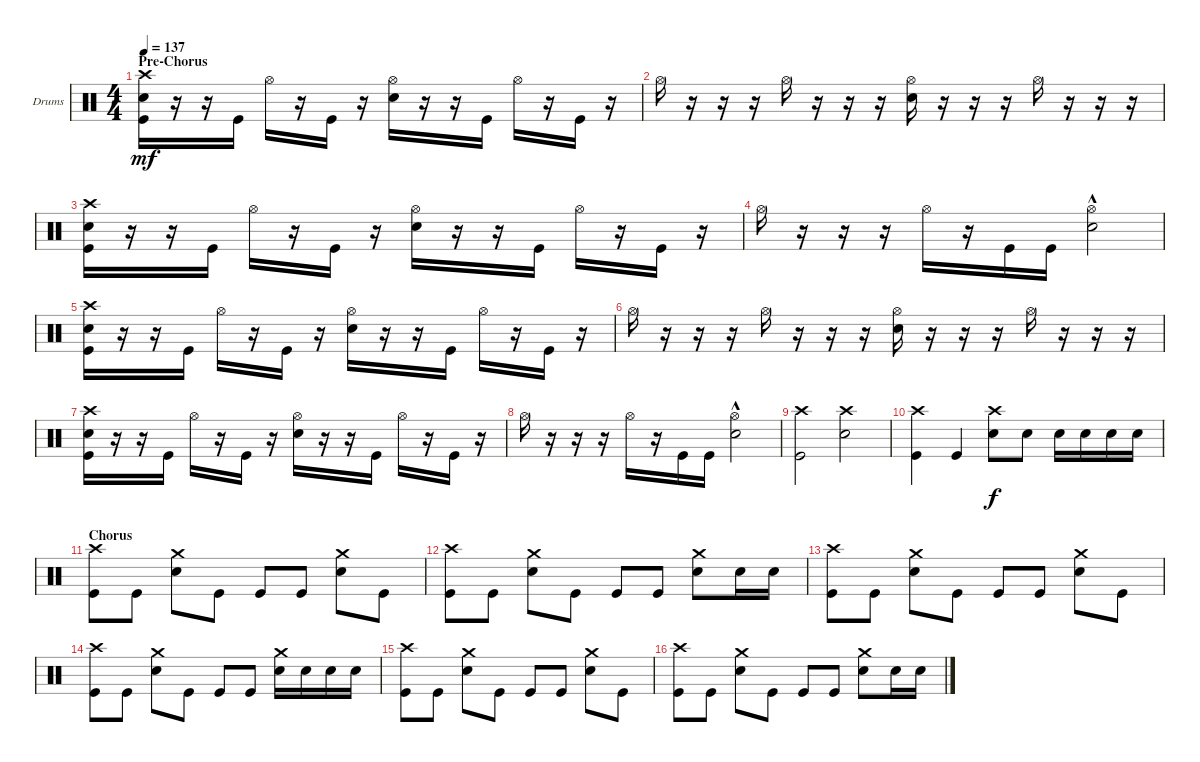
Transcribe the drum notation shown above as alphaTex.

\defaultSystemsLayout 4
\bracketExtendMode groupsimilarinstruments
\firstSystemTrackNameOrientation horizontal
\otherSystemsTrackNameOrientation horizontal
\track ("Drumkit - Paul" "Drums") {instrument percussion}
\staff {score}
\articulation defaults
\ts (4 4)
\section ("" "Pre-Chorus")
\tempo 137
\clef neutral
\ks c
("Snare (hit) 2" "Kick (hit)" "Crash high (hit)").16{dy mf} r.16 r.16 "Kick (hit)".16 "Hi-Hat (open)".16 r.16 "Kick (hit)".16 r.16 ("Hi-Hat (open)" "Snare (hit) 2").16 r.16 r.16 "Kick (hit)".16 "Hi-Hat (open)".16 r.16 "Kick (hit)".16 r.16 |
"Hi-Hat (open)".16 r.16 r.16 r.16 "Hi-Hat (open)".16 r.16 r.16 r.16 ("Hi-Hat (open)" "Snare (hit) 2").16 r.16 r.16 r.16 "Hi-Hat (open)".16 r.16 r.16 r.16 |
("Snare (hit) 2" "Crash high (hit)" "Kick (hit)").16 r.16 r.16 "Kick (hit)".16 "Hi-Hat (open)".16 r.16 "Kick (hit)".16 r.16 ("Hi-Hat (open)" "Snare (hit) 2").16 r.16 r.16 "Kick (hit)".16 "Hi-Hat (open)".16 r.16 "Kick (hit)".16 r.16 |
"Hi-Hat (open)".16 r.16 r.16 r.16 "Hi-Hat (open)".16 r.16 "Kick (hit)".16 "Kick (hit)".16 ("Snare (hit) 2" "Hi-Hat (open)"{hac}).2 |
("Snare (hit) 2" "Kick (hit)" "Crash high (hit)").16 r.16 r.16 "Kick (hit)".16 "Hi-Hat (open)".16 r.16 "Kick (hit)".16 r.16 ("Hi-Hat (open)" "Snare (hit) 2").16 r.16 r.16 "Kick (hit)".16 "Hi-Hat (open)".16 r.16 "Kick (hit)".16 r.16 |
"Hi-Hat (open)".16 r.16 r.16 r.16 "Hi-Hat (open)".16 r.16 r.16 r.16 ("Hi-Hat (open)" "Snare (hit) 2").16 r.16 r.16 r.16 "Hi-Hat (open)".16 r.16 r.16 r.16 |
("Snare (hit) 2" "Crash high (hit)" "Kick (hit)").16 r.16 r.16 "Kick (hit)".16 "Hi-Hat (open)".16 r.16 "Kick (hit)".16 r.16 ("Hi-Hat (open)" "Snare (hit) 2").16 r.16 r.16 "Kick (hit)".16 "Hi-Hat (open)".16 r.16 "Kick (hit)".16 r.16 |
"Hi-Hat (open)".16 r.16 r.16 r.16 "Hi-Hat (open)".16 r.16 "Kick (hit)".16 "Kick (hit)".16 ("Snare (hit) 2" "Hi-Hat (open)"{hac}).2 |
("Kick (hit)" "Crash high (hit)").2 ("Snare (hit) 2" "Crash high (hit)").2 |
("Kick (hit)" "Crash high (hit)").4 "Kick (hit)".4 ("Snare (hit) 2" "Crash high (hit)").8{dy f} "Snare (hit) 2".8 "Snare (hit) 2".16 "Snare (hit) 2".16 "Snare (hit) 2".16 "Snare (hit) 2".16 |
\section ("" "Chorus")
("Kick (hit)" "Crash high (hit)").8 "Kick (hit)".8 ("Snare (hit) 2" "Crash medium (hit)").8 "Kick (hit)".8 "Kick (hit)".8 "Kick (hit)".8 ("Snare (hit) 2" "Crash medium (hit)").8 "Kick (hit)".8 |
("Kick (hit)" "Crash high (hit)").8 "Kick (hit)".8 ("Snare (hit) 2" "Crash medium (hit)").8 "Kick (hit)".8 "Kick (hit)".8 "Kick (hit)".8 ("Snare (hit) 2" "Crash medium (hit)").8 "Snare (hit) 2".16 "Snare (hit) 2".16 |
("Kick (hit)" "Crash high (hit)").8 "Kick (hit)".8 ("Snare (hit) 2" "Crash medium (hit)").8 "Kick (hit)".8 "Kick (hit)".8 "Kick (hit)".8 ("Snare (hit) 2" "Crash medium (hit)").8 "Kick (hit)".8 |
("Kick (hit)" "Crash high (hit)").8 "Kick (hit)".8 ("Snare (hit) 2" "Crash medium (hit)").8 "Kick (hit)".8 "Kick (hit)".8 "Kick (hit)".8 ("Snare (hit) 2" "Crash medium (hit)").16 "Snare (hit) 2".16 "Snare (hit) 2".16 "Snare (hit) 2".16 |
("Kick (hit)" "Crash high (hit)").8 "Kick (hit)".8 ("Snare (hit) 2" "Crash medium (hit)").8 "Kick (hit)".8 "Kick (hit)".8 "Kick (hit)".8 ("Snare (hit) 2" "Crash medium (hit)").8 "Kick (hit)".8 |
("Kick (hit)" "Crash high (hit)").8 "Kick (hit)".8 ("Snare (hit) 2" "Crash medium (hit)").8 "Kick (hit)".8 "Kick (hit)".8 "Kick (hit)".8 ("Snare (hit) 2" "Crash medium (hit)").8 "Snare (hit) 2".16 "Snare (hit) 2".16
